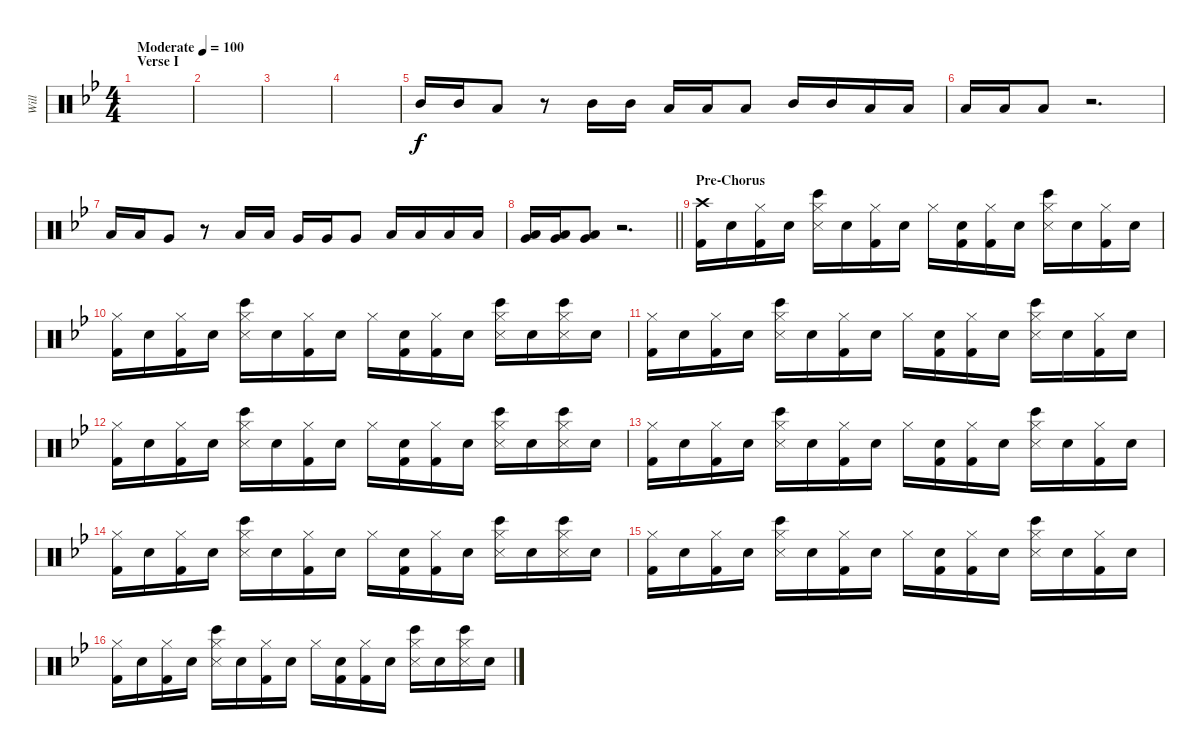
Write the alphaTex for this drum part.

\track ("Will" "Will") {instrument percussion}
\staff {score}
\articulation defaults
\ts (4 4)
\section ("" "Verse I")
\tempo (100 "Moderate")
\clef neutral
\ks bb
|
|
|
|
"Mid Tom (hit)".16 "Mid Tom (hit)".16 "Low Tom (hit)".8 r.8 "Mid Tom (hit)".16 "Mid Tom (hit)".16 "Low Tom (hit)".16 "Low Tom (hit)".16 "Low Tom (hit)".8 "Mid Tom (hit)".16 "Mid Tom (hit)".16 "Low Tom (hit)".16 "Low Tom (hit)".16 |
"Low Tom (hit)".16 "Low Tom (hit)".16 "Low Tom (hit)".8 r.2{d} |
"Low Tom (hit)".16 "Low Tom (hit)".16 "Very Low Tom (hit)".8 r.8 "Low Tom (hit)".16 "Low Tom (hit)".16 "Very Low Tom (hit)".16 "Very Low Tom (hit)".16 "Very Low Tom (hit)".8 "Low Tom (hit)".16 "Low Tom (hit)".16 "Low Tom (hit)".16 "Low Tom (hit)".16 |
\barLineRight lightlight
("Very Low Tom (hit)" "Low Floor Tom (hit)").16 ("Very Low Tom (hit)" "Low Floor Tom (hit)").16 ("Very Low Tom (hit)" "Low Floor Tom (hit)").8 r.2{d} |
\section ("" "Pre-Chorus")
("Crash high (hit)" "Kick (hit) 2").16{volume 11} "Snare (hit)".16 ("Hi-Hat (closed)" "Kick (hit) 2").16 "Snare (hit)".16 ("Hi-Hat (closed)" "Bongo High (hit)" "Snare (side stick) 3").16 "Snare (hit)".16 ("Hi-Hat (closed)" "Kick (hit) 2").16 "Snare (hit)".16 "Hi-Hat (closed)".16 ("Snare (hit)" "Kick (hit) 2").16 ("Hi-Hat (closed)" "Kick (hit) 2").16 "Snare (hit)".16 ("Hi-Hat (closed)" "Bongo High (hit)" "Snare (side stick) 3").16 "Snare (hit)".16 ("Hi-Hat (closed)" "Kick (hit) 2").16 "Snare (hit)".16 |
("Hi-Hat (closed)" "Kick (hit) 2").16 "Snare (hit)".16 ("Hi-Hat (closed)" "Kick (hit) 2").16 "Snare (hit)".16 ("Hi-Hat (closed)" "Bongo High (hit)" "Snare (side stick) 3").16 "Snare (hit)".16 ("Hi-Hat (closed)" "Kick (hit) 2").16 "Snare (hit)".16 "Hi-Hat (closed)".16 ("Snare (hit)" "Kick (hit) 2").16 ("Hi-Hat (closed)" "Kick (hit) 2").16 "Snare (hit)".16 ("Hi-Hat (closed)" "Bongo High (hit)" "Snare (side stick) 3").16 "Snare (hit)".16 ("Hi-Hat (closed)" "Bongo High (hit)" "Snare (side stick) 3").16 "Snare (hit)".16 |
("Hi-Hat (closed)" "Kick (hit) 2").16{volume 11} "Snare (hit)".16 ("Hi-Hat (closed)" "Kick (hit) 2").16 "Snare (hit)".16 ("Hi-Hat (closed)" "Bongo High (hit)" "Snare (side stick) 3").16 "Snare (hit)".16 ("Hi-Hat (closed)" "Kick (hit) 2").16 "Snare (hit)".16 "Hi-Hat (closed)".16 ("Snare (hit)" "Kick (hit) 2").16 ("Hi-Hat (closed)" "Kick (hit) 2").16 "Snare (hit)".16 ("Hi-Hat (closed)" "Bongo High (hit)" "Snare (side stick) 3").16 "Snare (hit)".16 ("Hi-Hat (closed)" "Kick (hit) 2").16 "Snare (hit)".16 |
("Hi-Hat (closed)" "Kick (hit) 2").16 "Snare (hit)".16 ("Hi-Hat (closed)" "Kick (hit) 2").16 "Snare (hit)".16 ("Hi-Hat (closed)" "Bongo High (hit)" "Snare (side stick) 3").16 "Snare (hit)".16 ("Hi-Hat (closed)" "Kick (hit) 2").16 "Snare (hit)".16 "Hi-Hat (closed)".16 ("Snare (hit)" "Kick (hit) 2").16 ("Hi-Hat (closed)" "Kick (hit) 2").16 "Snare (hit)".16 ("Hi-Hat (closed)" "Bongo High (hit)" "Snare (side stick) 3").16 "Snare (hit)".16 ("Hi-Hat (closed)" "Bongo High (hit)" "Snare (side stick) 3").16 "Snare (hit)".16 |
("Hi-Hat (closed)" "Kick (hit) 2").16{volume 11} "Snare (hit)".16 ("Hi-Hat (closed)" "Kick (hit) 2").16 "Snare (hit)".16 ("Hi-Hat (closed)" "Bongo High (hit)" "Snare (side stick) 3").16 "Snare (hit)".16 ("Hi-Hat (closed)" "Kick (hit) 2").16 "Snare (hit)".16 "Hi-Hat (closed)".16 ("Snare (hit)" "Kick (hit) 2").16 ("Hi-Hat (closed)" "Kick (hit) 2").16 "Snare (hit)".16 ("Hi-Hat (closed)" "Bongo High (hit)" "Snare (side stick) 3").16 "Snare (hit)".16 ("Hi-Hat (closed)" "Kick (hit) 2").16 "Snare (hit)".16 |
("Hi-Hat (closed)" "Kick (hit) 2").16 "Snare (hit)".16 ("Hi-Hat (closed)" "Kick (hit) 2").16 "Snare (hit)".16 ("Hi-Hat (closed)" "Bongo High (hit)" "Snare (side stick) 3").16 "Snare (hit)".16 ("Hi-Hat (closed)" "Kick (hit) 2").16 "Snare (hit)".16 "Hi-Hat (closed)".16 ("Snare (hit)" "Kick (hit) 2").16 ("Hi-Hat (closed)" "Kick (hit) 2").16 "Snare (hit)".16 ("Hi-Hat (closed)" "Bongo High (hit)" "Snare (side stick) 3").16 "Snare (hit)".16 ("Hi-Hat (closed)" "Bongo High (hit)" "Snare (side stick) 3").16 "Snare (hit)".16 |
("Hi-Hat (closed)" "Kick (hit) 2").16{volume 11} "Snare (hit)".16 ("Hi-Hat (closed)" "Kick (hit) 2").16 "Snare (hit)".16 ("Hi-Hat (closed)" "Bongo High (hit)" "Snare (side stick) 3").16 "Snare (hit)".16 ("Hi-Hat (closed)" "Kick (hit) 2").16 "Snare (hit)".16 "Hi-Hat (closed)".16 ("Snare (hit)" "Kick (hit) 2").16 ("Hi-Hat (closed)" "Kick (hit) 2").16 "Snare (hit)".16 ("Hi-Hat (closed)" "Bongo High (hit)" "Snare (side stick) 3").16 "Snare (hit)".16 ("Hi-Hat (closed)" "Kick (hit) 2").16 "Snare (hit)".16 |
("Hi-Hat (closed)" "Kick (hit) 2").16 "Snare (hit)".16 ("Hi-Hat (closed)" "Kick (hit) 2").16 "Snare (hit)".16 ("Hi-Hat (closed)" "Bongo High (hit)" "Snare (side stick) 3").16 "Snare (hit)".16 ("Hi-Hat (closed)" "Kick (hit) 2").16 "Snare (hit)".16 "Hi-Hat (closed)".16 ("Snare (hit)" "Kick (hit) 2").16 ("Hi-Hat (closed)" "Kick (hit) 2").16 "Snare (hit)".16 ("Hi-Hat (closed)" "Bongo High (hit)" "Snare (side stick) 3").16 "Snare (hit)".16 ("Hi-Hat (closed)" "Bongo High (hit)" "Snare (side stick) 3").16 "Snare (hit)".16
